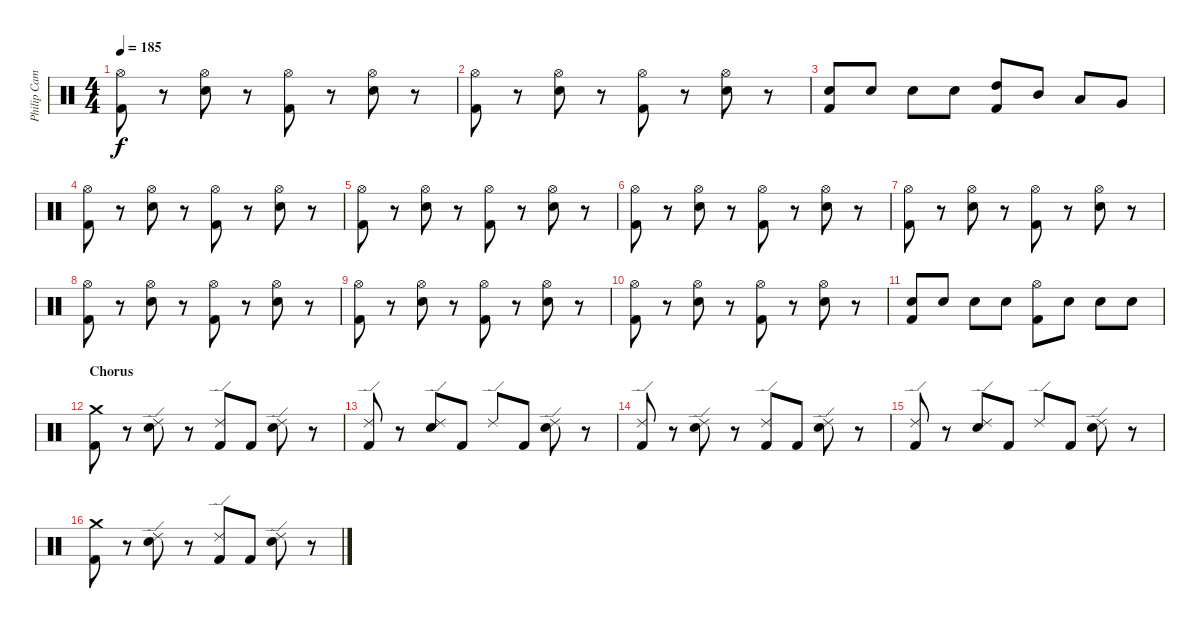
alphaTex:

\track ("Philip Campbell" "Philip Cam") {instrument percussion}
\staff {score}
\articulation defaults
\ts (4 4)
\tempo 185
\clef neutral
\ks c
("Hi-Hat (open)" "Kick (hit) 2").8{dy f} r.8 ("Hi-Hat (open)" "Electric Snare (hit)").8 r.8 ("Hi-Hat (open)" "Kick (hit) 2").8 r.8 ("Hi-Hat (open)" "Electric Snare (hit)").8 r.8 |
("Hi-Hat (open)" "Kick (hit) 2").8 r.8 ("Hi-Hat (open)" "Electric Snare (hit)").8 r.8 ("Hi-Hat (open)" "Kick (hit) 2").8 r.8 ("Hi-Hat (open)" "Electric Snare (hit)").8 r.8 |
("Electric Snare (hit)" "Kick (hit) 2").8 "Electric Snare (hit)".8 "Electric Snare (hit)".8 "Electric Snare (hit)".8 ("High Tom (hit)" "Kick (hit) 2").8 "Mid Tom (hit)".8 "Low Tom (hit)".8 "Very Low Tom (hit)".8 |
("Hi-Hat (open)" "Kick (hit) 2").8 r.8 ("Hi-Hat (open)" "Electric Snare (hit)").8 r.8 ("Hi-Hat (open)" "Kick (hit) 2").8 r.8 ("Hi-Hat (open)" "Electric Snare (hit)").8 r.8 |
("Hi-Hat (open)" "Kick (hit) 2").8 r.8 ("Hi-Hat (open)" "Electric Snare (hit)").8 r.8 ("Hi-Hat (open)" "Kick (hit) 2").8 r.8 ("Hi-Hat (open)" "Electric Snare (hit)").8 r.8 |
("Hi-Hat (open)" "Kick (hit) 2").8 r.8 ("Hi-Hat (open)" "Electric Snare (hit)").8 r.8 ("Hi-Hat (open)" "Kick (hit) 2").8 r.8 ("Hi-Hat (open)" "Electric Snare (hit)").8 r.8 |
("Hi-Hat (open)" "Kick (hit) 2").8 r.8 ("Hi-Hat (open)" "Electric Snare (hit)").8 r.8 ("Hi-Hat (open)" "Kick (hit) 2").8 r.8 ("Hi-Hat (open)" "Electric Snare (hit)").8 r.8 |
("Hi-Hat (open)" "Kick (hit) 2").8 r.8 ("Hi-Hat (open)" "Electric Snare (hit)").8 r.8 ("Hi-Hat (open)" "Kick (hit) 2").8 r.8 ("Hi-Hat (open)" "Electric Snare (hit)").8 r.8 |
("Hi-Hat (open)" "Kick (hit) 2").8 r.8 ("Hi-Hat (open)" "Electric Snare (hit)").8 r.8 ("Hi-Hat (open)" "Kick (hit) 2").8 r.8 ("Hi-Hat (open)" "Electric Snare (hit)").8 r.8 |
("Hi-Hat (open)" "Kick (hit) 2").8 r.8 ("Hi-Hat (open)" "Electric Snare (hit)").8 r.8 ("Hi-Hat (open)" "Kick (hit) 2").8 r.8 ("Hi-Hat (open)" "Electric Snare (hit)").8 r.8 |
("Electric Snare (hit)" "Kick (hit) 2").8 "Electric Snare (hit)".8 "Electric Snare (hit)".8 "Electric Snare (hit)".8 ("Hi-Hat (open)" "Kick (hit) 2").8 "Electric Snare (hit)".8 "Electric Snare (hit)".8 "Electric Snare (hit)".8 |
\section ("" "Chorus")
("Crash medium (hit)" "Kick (hit) 2").8 r.8 ("Ride (edge) 2" "Electric Snare (hit)").8 r.8 ("Ride (edge) 2" "Kick (hit) 2").8 "Kick (hit) 2".8 ("Ride (edge) 2" "Electric Snare (hit)").8 r.8 |
("Ride (edge) 2" "Kick (hit) 2").8 r.8 ("Ride (edge) 2" "Electric Snare (hit)").8 "Kick (hit) 2".8 "Ride (edge) 2".8 "Kick (hit) 2".8 ("Ride (edge) 2" "Electric Snare (hit)").8 r.8 |
("Ride (edge) 2" "Kick (hit) 2").8 r.8 ("Ride (edge) 2" "Electric Snare (hit)").8 r.8 ("Ride (edge) 2" "Kick (hit) 2").8 "Kick (hit) 2".8 ("Ride (edge) 2" "Electric Snare (hit)").8 r.8 |
("Ride (edge) 2" "Kick (hit) 2").8 r.8 ("Ride (edge) 2" "Electric Snare (hit)").8 "Kick (hit) 2".8 "Ride (edge) 2".8 "Kick (hit) 2".8 ("Ride (edge) 2" "Electric Snare (hit)").8 r.8 |
("Crash medium (hit)" "Kick (hit) 2").8 r.8 ("Ride (edge) 2" "Electric Snare (hit)").8 r.8 ("Ride (edge) 2" "Kick (hit) 2").8 "Kick (hit) 2".8 ("Ride (edge) 2" "Electric Snare (hit)").8 r.8
